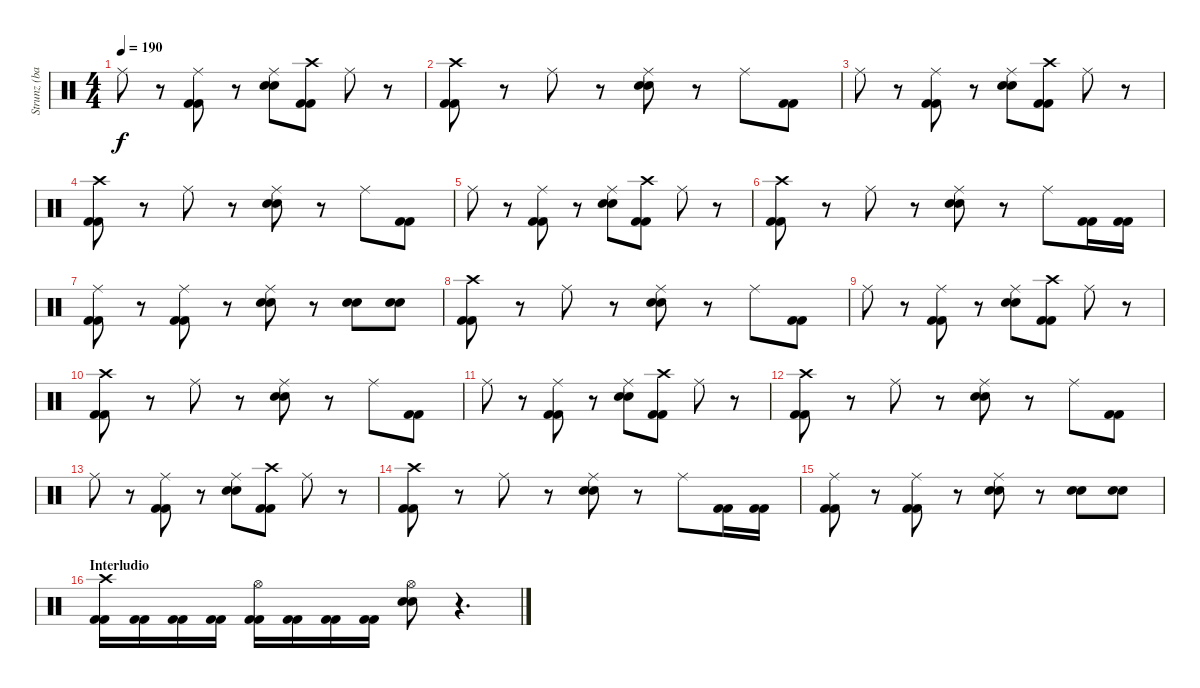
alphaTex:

\track ("Strunz (bateria)" "Strunz (ba") {instrument percussion}
\staff {score}
\articulation defaults
\ts (4 4)
\tempo 190
\clef neutral
\ks c "Ride (middle)".8{dy f}
r.8 ("Ride (middle)" "Kick (hit) 2" "Kick (hit) 2").8 r.8 ("Ride (middle)" "Snare (hit) 2" "Snare (hit) 2").8 ("Crash high (hit)" "Kick (hit) 2" "Kick (hit) 2").8 "Ride (middle)".8 r.8 |
("Crash high (hit)" "Kick (hit) 2" "Kick (hit) 2").8 r.8 "Ride (middle)".8 r.8 ("Ride (middle)" "Snare (hit) 2" "Snare (hit) 2").8 r.8 "Ride (middle)".8 ("Kick (hit) 2" "Kick (hit) 2").8 |
"Ride (middle)".8 r.8 ("Ride (middle)" "Kick (hit) 2" "Kick (hit) 2").8 r.8 ("Ride (middle)" "Snare (hit) 2" "Snare (hit) 2").8 ("Crash high (hit)" "Kick (hit) 2" "Kick (hit) 2").8 "Ride (middle)".8 r.8 |
("Crash high (hit)" "Kick (hit) 2" "Kick (hit) 2").8 r.8 "Ride (middle)".8 r.8 ("Ride (middle)" "Snare (hit) 2" "Snare (hit) 2").8 r.8 "Ride (middle)".8 ("Kick (hit) 2" "Kick (hit) 2").8 |
"Ride (middle)".8 r.8 ("Ride (middle)" "Kick (hit) 2" "Kick (hit) 2").8 r.8 ("Ride (middle)" "Snare (hit) 2" "Snare (hit) 2").8 ("Crash high (hit)" "Kick (hit) 2" "Kick (hit) 2").8 "Ride (middle)".8 r.8 |
("Crash high (hit)" "Kick (hit) 2" "Kick (hit) 2").8 r.8 "Ride (middle)".8 r.8 ("Ride (middle)" "Snare (hit) 2" "Snare (hit) 2").8 r.8 "Ride (middle)".8 ("Kick (hit) 2" "Kick (hit) 2").16 ("Kick (hit) 2" "Kick (hit) 2").16 |
("Ride (middle)" "Kick (hit) 2" "Kick (hit) 2").8 r.8 ("Ride (middle)" "Kick (hit) 2" "Kick (hit) 2").8 r.8 ("Ride (middle)" "Snare (hit) 2" "Snare (hit) 2").8 r.8 ("Snare (hit) 2" "Snare (hit) 2").8 ("Snare (hit) 2" "Snare (hit) 2").8 |
("Crash high (hit)" "Kick (hit) 2" "Kick (hit) 2").8 r.8 "Ride (middle)".8 r.8 ("Ride (middle)" "Snare (hit) 2" "Snare (hit) 2").8 r.8 "Ride (middle)".8 ("Kick (hit) 2" "Kick (hit) 2").8 |
"Ride (middle)".8 r.8 ("Ride (middle)" "Kick (hit) 2" "Kick (hit) 2").8 r.8 ("Ride (middle)" "Snare (hit) 2" "Snare (hit) 2").8 ("Crash high (hit)" "Kick (hit) 2" "Kick (hit) 2").8 "Ride (middle)".8 r.8 |
("Crash high (hit)" "Kick (hit) 2" "Kick (hit) 2").8 r.8 "Ride (middle)".8 r.8 ("Ride (middle)" "Snare (hit) 2" "Snare (hit) 2").8 r.8 "Ride (middle)".8 ("Kick (hit) 2" "Kick (hit) 2").8 |
"Ride (middle)".8 r.8 ("Ride (middle)" "Kick (hit) 2" "Kick (hit) 2").8 r.8 ("Ride (middle)" "Snare (hit) 2" "Snare (hit) 2").8 ("Crash high (hit)" "Kick (hit) 2" "Kick (hit) 2").8 "Ride (middle)".8 r.8 |
("Crash high (hit)" "Kick (hit) 2" "Kick (hit) 2").8 r.8 "Ride (middle)".8 r.8 ("Ride (middle)" "Snare (hit) 2" "Snare (hit) 2").8 r.8 "Ride (middle)".8 ("Kick (hit) 2" "Kick (hit) 2").8 |
"Ride (middle)".8 r.8 ("Ride (middle)" "Kick (hit) 2" "Kick (hit) 2").8 r.8 ("Ride (middle)" "Snare (hit) 2" "Snare (hit) 2").8 ("Crash high (hit)" "Kick (hit) 2" "Kick (hit) 2").8 "Ride (middle)".8 r.8 |
("Crash high (hit)" "Kick (hit) 2" "Kick (hit) 2").8 r.8 "Ride (middle)".8 r.8 ("Ride (middle)" "Snare (hit) 2" "Snare (hit) 2").8 r.8 "Ride (middle)".8 ("Kick (hit) 2" "Kick (hit) 2").16 ("Kick (hit) 2" "Kick (hit) 2").16 |
("Ride (middle)" "Kick (hit) 2" "Kick (hit) 2").8 r.8 ("Ride (middle)" "Kick (hit) 2" "Kick (hit) 2").8 r.8 ("Ride (middle)" "Snare (hit) 2" "Snare (hit) 2").8 r.8 ("Snare (hit) 2" "Snare (hit) 2").8 ("Snare (hit) 2" "Snare (hit) 2").8 |
\section ("" "Interludio")
("Crash high (hit)" "Kick (hit) 2" "Kick (hit) 2").16 ("Kick (hit) 2" "Kick (hit) 2").16 ("Kick (hit) 2" "Kick (hit) 2").16 ("Kick (hit) 2" "Kick (hit) 2").16 ("Hi-Hat (open)" "Kick (hit) 2" "Kick (hit) 2").16 ("Kick (hit) 2" "Kick (hit) 2").16 ("Kick (hit) 2" "Kick (hit) 2").16 ("Kick (hit) 2" "Kick (hit) 2").16 ("Hi-Hat (open)" "Snare (hit) 2" "Snare (hit) 2").8 r.4{d}
